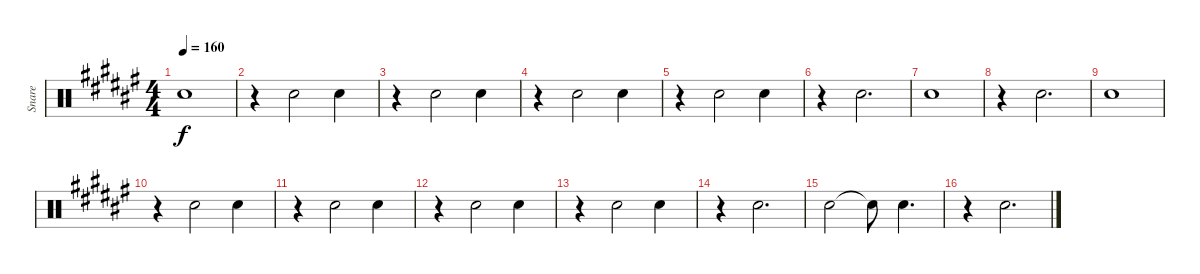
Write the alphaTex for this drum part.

\track ("Snare" "Snare") {instrument percussion}
\staff {score}
\articulation defaults
\ts (4 4)
\tempo 160
\clef neutral
\ks d#minor "Electric Snare (hit)".1{dy f}
|
r.4 "Electric Snare (hit)".2 "Electric Snare (hit)".4 |
r.4 "Electric Snare (hit)".2 "Electric Snare (hit)".4 |
r.4 "Electric Snare (hit)".2 "Electric Snare (hit)".4 |
r.4 "Electric Snare (hit)".2 "Electric Snare (hit)".4 |
r.4 "Electric Snare (hit)".2{d} |
"Electric Snare (hit)".1 |
r.4 "Electric Snare (hit)".2{d} |
"Electric Snare (hit)".1 |
r.4 "Electric Snare (hit)".2 "Electric Snare (hit)".4 |
r.4 "Electric Snare (hit)".2 "Electric Snare (hit)".4 |
r.4 "Electric Snare (hit)".2 "Electric Snare (hit)".4 |
r.4 "Electric Snare (hit)".2 "Electric Snare (hit)".4 |
r.4 "Electric Snare (hit)".2{d} |
"Electric Snare (hit)".2 "Electric Snare (hit)"{t}.8 "Electric Snare (hit)".4{d} |
r.4 "Electric Snare (hit)".2{d}
